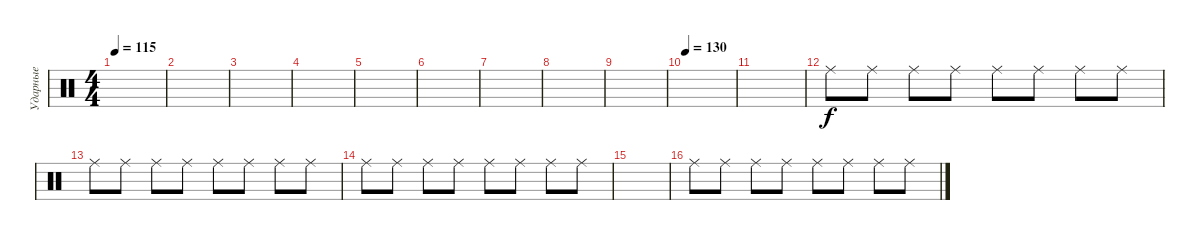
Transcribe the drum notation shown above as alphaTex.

\track ("Ударные" "Ударные") {instrument percussion}
\staff {score}
\articulation defaults
\ts (4 4)
\tempo 115
\clef neutral
\ks c
|
|
|
|
|
|
|
|
|
\tempo 130
|
|
"Ride (middle)".8 "Ride (middle)".8 "Ride (middle)".8 "Ride (middle)".8 "Ride (middle)".8 "Ride (middle)".8 "Ride (middle)".8 "Ride (middle)".8 |
"Ride (middle)".8 "Ride (middle)".8 "Ride (middle)".8 "Ride (middle)".8 "Ride (middle)".8 "Ride (middle)".8 "Ride (middle)".8 "Ride (middle)".8 |
"Ride (middle)".8 "Ride (middle)".8 "Ride (middle)".8 "Ride (middle)".8 "Ride (middle)".8 "Ride (middle)".8 "Ride (middle)".8 "Ride (middle)".8 |
|
"Ride (middle)".8 "Ride (middle)".8 "Ride (middle)".8 "Ride (middle)".8 "Ride (middle)".8 "Ride (middle)".8 "Ride (middle)".8 "Ride (middle)".8
